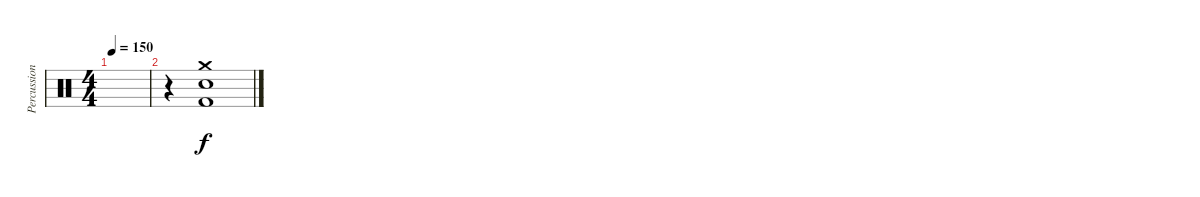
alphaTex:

\track ("Percussions" "Percussion") {instrument percussion}
\staff {score}
\articulation defaults
\ts (4 4)
\tempo 150
\clef neutral
\ks c
|
r.4 ("Crash medium (hit)" "Electric Snare (hit)" "Kick (hit) 2").1
